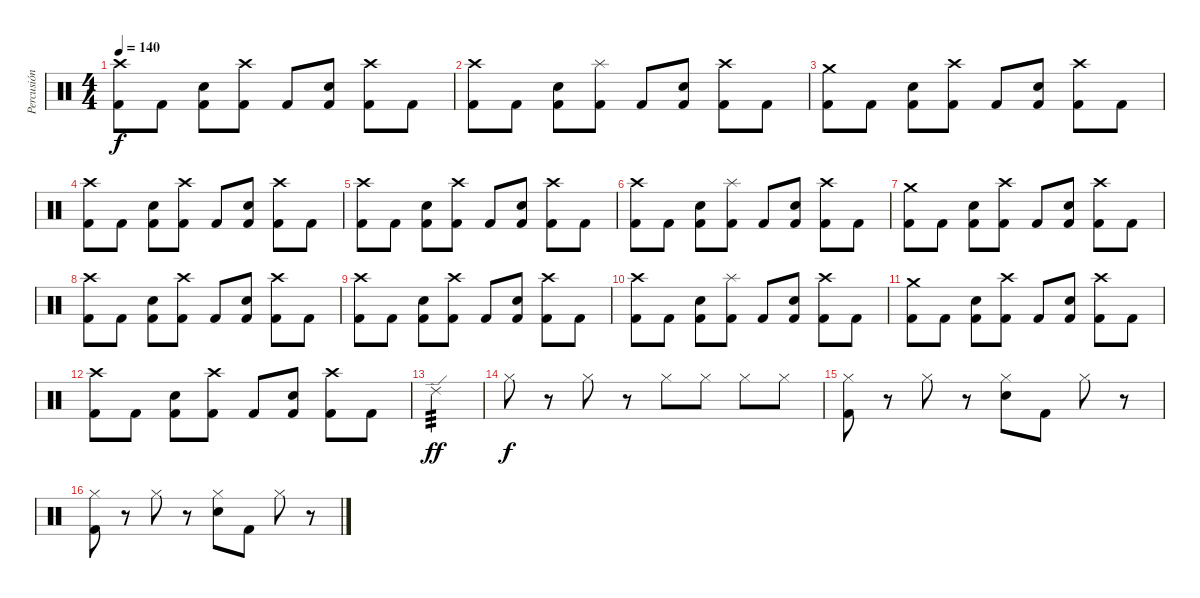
\track ("Percusión" "Percusión") {instrument percussion}
\staff {score}
\articulation defaults
\ts (4 4)
\tempo 140
\clef neutral
\ks c
("Crash high (hit)" "Kick (hit) 2").8{dy f} "Kick (hit) 2".8 ("Kick (hit) 2" "Snare (hit) 2").8 ("Crash high (hit)" "Kick (hit) 2").8 "Kick (hit) 2".8 ("Kick (hit) 2" "Snare (hit) 2").8 ("Crash high (hit)" "Kick (hit) 2").8 "Kick (hit) 2".8 |
("Crash high (hit)" "Kick (hit) 2").8 "Kick (hit) 2".8 ("Kick (hit) 2" "Snare (hit) 2").8 ("Splash (hit)" "Kick (hit) 2").8 "Kick (hit) 2".8 ("Kick (hit) 2" "Snare (hit) 2").8 ("Crash high (hit)" "Kick (hit) 2").8 "Kick (hit) 2".8 |
("Crash medium (hit)" "Kick (hit) 2").8 "Kick (hit) 2".8 ("Kick (hit) 2" "Snare (hit) 2").8 ("Crash high (hit)" "Kick (hit) 2").8 "Kick (hit) 2".8 ("Kick (hit) 2" "Snare (hit) 2").8 ("Crash high (hit)" "Kick (hit) 2").8 "Kick (hit) 2".8 |
("Crash high (hit)" "Kick (hit) 2").8 "Kick (hit) 2".8 ("Kick (hit) 2" "Snare (hit) 2").8 ("Crash high (hit)" "Kick (hit) 2").8 "Kick (hit) 2".8 ("Kick (hit) 2" "Snare (hit) 2").8 ("Crash high (hit)" "Kick (hit) 2").8 "Kick (hit) 2".8 |
("Crash high (hit)" "Kick (hit) 2").8 "Kick (hit) 2".8 ("Kick (hit) 2" "Snare (hit) 2").8 ("Crash high (hit)" "Kick (hit) 2").8 "Kick (hit) 2".8 ("Kick (hit) 2" "Snare (hit) 2").8 ("Crash high (hit)" "Kick (hit) 2").8 "Kick (hit) 2".8 |
("Crash high (hit)" "Kick (hit) 2").8 "Kick (hit) 2".8 ("Kick (hit) 2" "Snare (hit) 2").8 ("Splash (hit)" "Kick (hit) 2").8 "Kick (hit) 2".8 ("Kick (hit) 2" "Snare (hit) 2").8 ("Crash high (hit)" "Kick (hit) 2").8 "Kick (hit) 2".8 |
("Crash medium (hit)" "Kick (hit) 2").8 "Kick (hit) 2".8 ("Kick (hit) 2" "Snare (hit) 2").8 ("Crash high (hit)" "Kick (hit) 2").8 "Kick (hit) 2".8 ("Kick (hit) 2" "Snare (hit) 2").8 ("Crash high (hit)" "Kick (hit) 2").8 "Kick (hit) 2".8 |
("Crash high (hit)" "Kick (hit) 2").8 "Kick (hit) 2".8 ("Kick (hit) 2" "Snare (hit) 2").8 ("Crash high (hit)" "Kick (hit) 2").8 "Kick (hit) 2".8 ("Kick (hit) 2" "Snare (hit) 2").8 ("Crash high (hit)" "Kick (hit) 2").8 "Kick (hit) 2".8 |
("Crash high (hit)" "Kick (hit) 2").8 "Kick (hit) 2".8 ("Kick (hit) 2" "Snare (hit) 2").8 ("Crash high (hit)" "Kick (hit) 2").8 "Kick (hit) 2".8 ("Kick (hit) 2" "Snare (hit) 2").8 ("Crash high (hit)" "Kick (hit) 2").8 "Kick (hit) 2".8 |
("Crash high (hit)" "Kick (hit) 2").8 "Kick (hit) 2".8 ("Kick (hit) 2" "Snare (hit) 2").8 ("Splash (hit)" "Kick (hit) 2").8 "Kick (hit) 2".8 ("Kick (hit) 2" "Snare (hit) 2").8 ("Crash high (hit)" "Kick (hit) 2").8 "Kick (hit) 2".8 |
("Crash medium (hit)" "Kick (hit) 2").8 "Kick (hit) 2".8 ("Kick (hit) 2" "Snare (hit) 2").8 ("Crash high (hit)" "Kick (hit) 2").8 "Kick (hit) 2".8 ("Kick (hit) 2" "Snare (hit) 2").8 ("Crash high (hit)" "Kick (hit) 2").8 "Kick (hit) 2".8 |
("Crash high (hit)" "Kick (hit) 2").8 "Kick (hit) 2".8 ("Kick (hit) 2" "Snare (hit) 2").8 ("Crash high (hit)" "Kick (hit) 2").8 "Kick (hit) 2".8 ("Kick (hit) 2" "Snare (hit) 2").8 ("Crash high (hit)" "Kick (hit) 2").8 "Kick (hit) 2".8 |
"Ride (edge) 2".4{tp 3 dy ff} |
"Hi-Hat (closed)".8{dy f} r.8 "Hi-Hat (closed)".8 r.8 "Hi-Hat (closed)".8 "Hi-Hat (closed)".8 "Hi-Hat (closed)".8 "Hi-Hat (closed)".8 |
("Hi-Hat (closed)" "Kick (hit) 2").8 r.8 "Hi-Hat (closed)".8 r.8 ("Hi-Hat (closed)" "Snare (hit) 2").8 "Kick (hit) 2".8 "Hi-Hat (closed)".8 r.8 |
("Hi-Hat (closed)" "Kick (hit) 2").8 r.8 "Hi-Hat (closed)".8 r.8 ("Hi-Hat (closed)" "Snare (hit) 2").8 "Kick (hit) 2".8 "Hi-Hat (closed)".8 r.8
